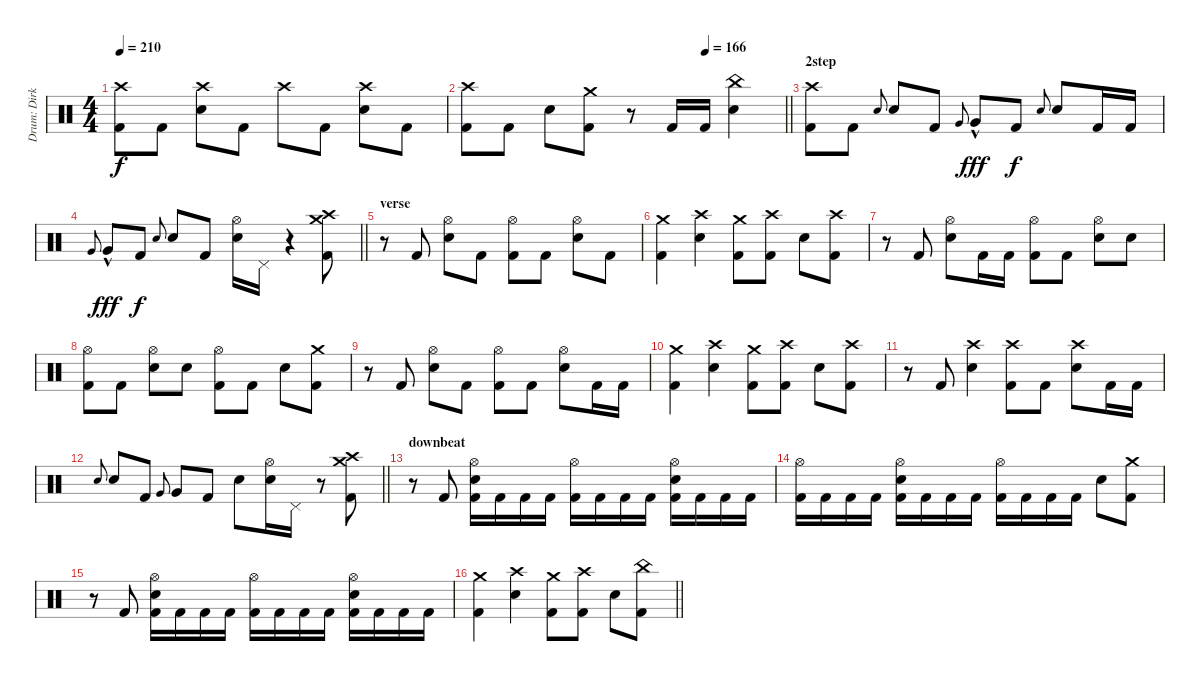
\track ("Drum: Dirk" "Drum: Dirk") {instrument percussion}
\staff {score}
\articulation defaults
\ts (4 4)
\tempo 210
\clef neutral
\ks c
("Crash high (hit)" "Kick (hit) 2").8{dy f} "Kick (hit) 2".8 ("Crash high (hit)" "Electric Snare (hit)").8 "Kick (hit) 2".8 "Crash high (hit)".8 "Kick (hit) 2".8 ("Crash high (hit)" "Electric Snare (hit)").8 "Kick (hit) 2".8 |
\tempo (166 0.75)
\barLineRight lightlight
("Crash high (hit)" "Kick (hit) 2").8 "Kick (hit) 2".8 "Electric Snare (hit)".8 ("Crash medium (hit)" "Kick (hit) 2").8 r.8 "Kick (hit) 2".16 "Kick (hit) 2".16 ("China (hit)" "Electric Snare (hit)").4 |
\section ("" "2step ")
("Crash high (hit)" "Kick (hit) 2").8 "Kick (hit) 2".8 "Electric Snare (hit)".8{gr onbeat} "Electric Snare (hit)".8 "Kick (hit) 2".8 "Very Low Tom (hit)".8{gr onbeat} "Very Low Tom (hit)"{hac}.8{dy fff} "Kick (hit) 2".8{dy f} "Electric Snare (hit)".8{gr onbeat} "Electric Snare (hit)".8 "Kick (hit) 2".16 "Kick (hit) 2".16 |
\barLineRight lightlight "Very Low Tom (hit)".8{gr onbeat} "Very Low Tom (hit)"{hac}.8{dy fff} "Kick (hit) 2".8{dy f} "Electric Snare (hit)".8{gr onbeat} "Electric Snare (hit)".8 "Kick (hit) 2".8
("Hi-Hat (open)" "Electric Snare (hit)").16 "Pedal Hi-Hat (hit)".16 r.4 ("Crash high (hit)" "Crash medium (hit)" "Kick (hit) 2").8 |
\section ("" "verse")
r.8 "Kick (hit) 2".8 ("Hi-Hat (open)" "Electric Snare (hit)").8 "Kick (hit) 2".8 ("Hi-Hat (open)" "Kick (hit) 2").8 "Kick (hit) 2".8 ("Hi-Hat (open)" "Electric Snare (hit)").8 "Kick (hit) 2".8 |
("Crash medium (hit)" "Kick (hit) 2").4 ("Crash high (hit)" "Electric Snare (hit)").4 ("Crash medium (hit)" "Kick (hit) 2").8 ("Crash high (hit)" "Kick (hit) 2").8 "Electric Snare (hit)".8 ("Crash high (hit)" "Kick (hit) 2").8 |
r.8 "Kick (hit) 2".8 ("Hi-Hat (open)" "Electric Snare (hit)").8 "Kick (hit) 2".16 "Kick (hit) 2".16 ("Hi-Hat (open)" "Kick (hit) 2").8 "Kick (hit) 2".8 ("Hi-Hat (open)" "Electric Snare (hit)").8 "Electric Snare (hit)".8 |
("Hi-Hat (open)" "Kick (hit) 2").8 "Kick (hit) 2".8 ("Hi-Hat (open)" "Electric Snare (hit)").8 "Electric Snare (hit)".8 ("Hi-Hat (open)" "Kick (hit) 2").8 "Kick (hit) 2".8 "Electric Snare (hit)".8 ("Crash medium (hit)" "Kick (hit) 2").8 |
r.8 "Kick (hit) 2".8 ("Hi-Hat (open)" "Electric Snare (hit)").8 "Kick (hit) 2".8 ("Hi-Hat (open)" "Kick (hit) 2").8 "Kick (hit) 2".8 ("Hi-Hat (open)" "Electric Snare (hit)").8 "Kick (hit) 2".16 "Kick (hit) 2".16 |
("Crash medium (hit)" "Kick (hit) 2").4 ("Crash high (hit)" "Electric Snare (hit)").4 ("Crash medium (hit)" "Kick (hit) 2").8 ("Crash high (hit)" "Kick (hit) 2").8 "Electric Snare (hit)".8 ("Crash high (hit)" "Kick (hit) 2").8 |
r.8 "Kick (hit) 2".8 ("Crash high (hit)" "Electric Snare (hit)").4 ("Crash high (hit)" "Kick (hit) 2").8 "Kick (hit) 2".8 ("Crash high (hit)" "Electric Snare (hit)").8 "Kick (hit) 2".16 "Kick (hit) 2".16 |
\barLineRight lightlight "Electric Snare (hit)".8{gr onbeat} "Electric Snare (hit)".8 "Kick (hit) 2".8 "Very Low Tom (hit)".8{gr onbeat} "Very Low Tom (hit)".8 "Kick (hit) 2".8 "Electric Snare (hit)".8
("Hi-Hat (open)" "Electric Snare (hit)").16 "Pedal Hi-Hat (hit)".16 r.8 ("Crash high (hit)" "Crash medium (hit)" "Kick (hit) 2").8 |
\section ("" "downbeat")
r.8 "Kick (hit) 2".8 ("Hi-Hat (open)" "Electric Snare (hit)" "Kick (hit) 2").16 "Kick (hit) 2".16 "Kick (hit) 2".16 "Kick (hit) 2".16 ("Hi-Hat (open)" "Kick (hit) 2").16 "Kick (hit) 2".16 "Kick (hit) 2".16 "Kick (hit) 2".16 ("Hi-Hat (open)" "Electric Snare (hit)" "Kick (hit) 2").16 "Kick (hit) 2".16 "Kick (hit) 2".16 "Kick (hit) 2".16 |
("Hi-Hat (open)" "Kick (hit) 2").16 "Kick (hit) 2".16 "Kick (hit) 2".16 "Kick (hit) 2".16 ("Hi-Hat (open)" "Electric Snare (hit)" "Kick (hit) 2").16 "Kick (hit) 2".16 "Kick (hit) 2".16 "Kick (hit) 2".16 ("Hi-Hat (open)" "Kick (hit) 2").16 "Kick (hit) 2".16 "Kick (hit) 2".16 "Kick (hit) 2".16 "Electric Snare (hit)".8 ("Crash medium (hit)" "Kick (hit) 2").8 |
r.8 "Kick (hit) 2".8 ("Hi-Hat (open)" "Electric Snare (hit)" "Kick (hit) 2").16 "Kick (hit) 2".16 "Kick (hit) 2".16 "Kick (hit) 2".16 ("Hi-Hat (open)" "Kick (hit) 2").16 "Kick (hit) 2".16 "Kick (hit) 2".16 "Kick (hit) 2".16 ("Hi-Hat (open)" "Electric Snare (hit)" "Kick (hit) 2").16 "Kick (hit) 2".16 "Kick (hit) 2".16 "Kick (hit) 2".16 |
\barLineRight lightlight
("Crash medium (hit)" "Kick (hit) 2").4 ("Crash high (hit)" "Electric Snare (hit)").4 ("Crash medium (hit)" "Kick (hit) 2").8 ("Crash high (hit)" "Kick (hit) 2").8 "Electric Snare (hit)".8 ("China (hit)" "Kick (hit) 2").8
